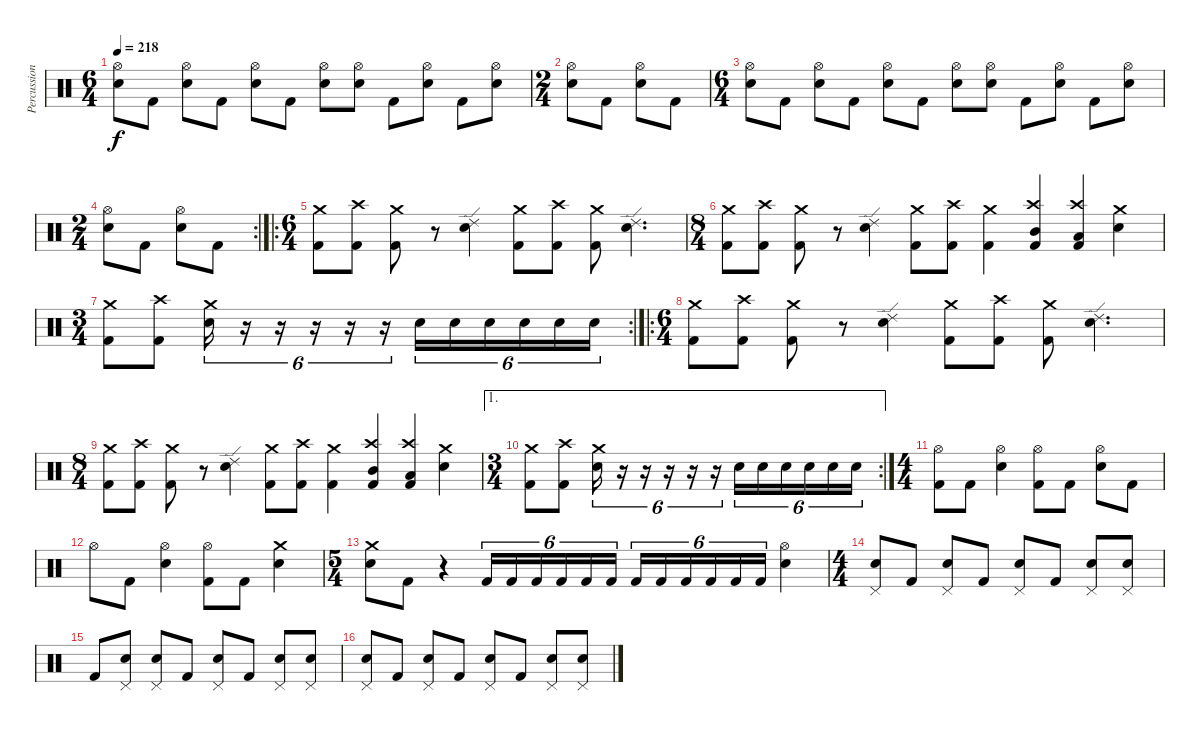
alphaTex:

\track ("Percussions" "Percussion") {instrument percussion}
\staff {score}
\articulation defaults
\ts (6 4)
\tempo 218
\clef neutral
\ks c
("Hi-Hat (open)" "Electric Snare (hit)").8{dy f} "Kick (hit) 2".8 ("Hi-Hat (open)" "Electric Snare (hit)").8 "Kick (hit) 2".8 ("Hi-Hat (open)" "Electric Snare (hit)").8 "Kick (hit) 2".8 ("Hi-Hat (open)" "Electric Snare (hit)").8 ("Hi-Hat (open)" "Electric Snare (hit)").8 "Kick (hit) 2".8 ("Hi-Hat (open)" "Electric Snare (hit)").8 "Kick (hit) 2".8 ("Hi-Hat (open)" "Electric Snare (hit)").8 |
\ts (2 4)
("Hi-Hat (open)" "Electric Snare (hit)").8 "Kick (hit) 2".8 ("Hi-Hat (open)" "Electric Snare (hit)").8 "Kick (hit) 2".8 |
\ts (6 4)
("Hi-Hat (open)" "Electric Snare (hit)").8 "Kick (hit) 2".8 ("Hi-Hat (open)" "Electric Snare (hit)").8 "Kick (hit) 2".8 ("Hi-Hat (open)" "Electric Snare (hit)").8 "Kick (hit) 2".8 ("Hi-Hat (open)" "Electric Snare (hit)").8 ("Hi-Hat (open)" "Electric Snare (hit)").8 "Kick (hit) 2".8 ("Hi-Hat (open)" "Electric Snare (hit)").8 "Kick (hit) 2".8 ("Hi-Hat (open)" "Electric Snare (hit)").8 |
\rc 2
\ts (2 4)
("Hi-Hat (open)" "Electric Snare (hit)").8 "Kick (hit) 2".8 ("Hi-Hat (open)" "Electric Snare (hit)").8 "Kick (hit) 2".8 |
\ro
\ts (6 4)
("Crash medium (hit)" "Kick (hit) 2").8 ("Crash high (hit)" "Kick (hit) 2").8 ("Crash medium (hit)" "Kick (hit) 2").8 r.8 ("Ride (edge) 2" "Electric Snare (hit)").4 ("Crash medium (hit)" "Kick (hit) 2").8 ("Crash high (hit)" "Kick (hit) 2").8 ("Crash medium (hit)" "Kick (hit) 2").8 ("Ride (edge) 2" "Electric Snare (hit)").4{d} |
\ts (8 4)
("Crash medium (hit)" "Kick (hit) 2").8 ("Crash high (hit)" "Kick (hit) 2").8 ("Crash medium (hit)" "Kick (hit) 2").8 r.8 ("Ride (edge) 2" "Electric Snare (hit)").4 ("Crash medium (hit)" "Kick (hit) 2").8 ("Crash high (hit)" "Kick (hit) 2").8 ("Crash medium (hit)" "Kick (hit) 2").4 ("Crash high (hit)" "Mid Tom (hit)" "Kick (hit) 2").4 ("Crash high (hit)" "Low Tom (hit)" "Kick (hit) 2").4 ("Crash medium (hit)" "Electric Snare (hit)").4 |
\rc 2
\ts (3 4)
("Crash medium (hit)" "Kick (hit) 2").8 ("Crash high (hit)" "Kick (hit) 2").8 ("Crash medium (hit)" "Electric Snare (hit)").16{tu (6 4)} r.16{tu (6 4)} r.16{tu (6 4)} r.16{tu (6 4)} r.16{tu (6 4)} r.16{tu (6 4)} "Electric Snare (hit)".16{tu (6 4)} "Electric Snare (hit)".16{tu (6 4)} "Electric Snare (hit)".16{tu (6 4)} "Electric Snare (hit)".16{tu (6 4)} "Electric Snare (hit)".16{tu (6 4)} "Electric Snare (hit)".16{tu (6 4)} |
\ro
\ts (6 4)
("Crash medium (hit)" "Kick (hit) 2").8 ("Crash high (hit)" "Kick (hit) 2").8 ("Crash medium (hit)" "Kick (hit) 2").8 r.8 ("Ride (edge) 2" "Electric Snare (hit)").4 ("Crash medium (hit)" "Kick (hit) 2").8 ("Crash high (hit)" "Kick (hit) 2").8 ("Crash medium (hit)" "Kick (hit) 2").8 ("Ride (edge) 2" "Electric Snare (hit)").4{d} |
\ts (8 4)
("Crash medium (hit)" "Kick (hit) 2").8 ("Crash high (hit)" "Kick (hit) 2").8 ("Crash medium (hit)" "Kick (hit) 2").8 r.8 ("Ride (edge) 2" "Electric Snare (hit)").4 ("Crash medium (hit)" "Kick (hit) 2").8 ("Crash high (hit)" "Kick (hit) 2").8 ("Crash medium (hit)" "Kick (hit) 2").4 ("Crash high (hit)" "Mid Tom (hit)" "Kick (hit) 2").4 ("Crash high (hit)" "Low Tom (hit)" "Kick (hit) 2").4 ("Crash medium (hit)" "Electric Snare (hit)").4 |
\ae 1
\rc 2
\ts (3 4)
("Crash medium (hit)" "Kick (hit) 2").8 ("Crash high (hit)" "Kick (hit) 2").8 ("Crash medium (hit)" "Electric Snare (hit)").16{tu (6 4)} r.16{tu (6 4)} r.16{tu (6 4)} r.16{tu (6 4)} r.16{tu (6 4)} r.16{tu (6 4)} "Electric Snare (hit)".16{tu (6 4)} "Electric Snare (hit)".16{tu (6 4)} "Electric Snare (hit)".16{tu (6 4)} "Electric Snare (hit)".16{tu (6 4)} "Electric Snare (hit)".16{tu (6 4)} "Electric Snare (hit)".16{tu (6 4)} |
\ts (4 4)
("Hi-Hat (open)" "Kick (hit) 2").8 "Kick (hit) 2".8 ("Hi-Hat (open)" "Electric Snare (hit)").4 ("Hi-Hat (open)" "Kick (hit) 2").8 "Kick (hit) 2".8 ("Hi-Hat (open)" "Electric Snare (hit)").8 "Kick (hit) 2".8 |
"Hi-Hat (open)".8 "Kick (hit) 2".8 ("Hi-Hat (open)" "Electric Snare (hit)").4 ("Hi-Hat (open)" "Kick (hit) 2").8 "Kick (hit) 2".8 ("Crash medium (hit)" "Electric Snare (hit)").4 |
\ts (5 4)
("Crash medium (hit)" "Electric Snare (hit)").8 "Kick (hit) 2".8 r.4 "Kick (hit) 2".16{tu (6 4)} "Kick (hit) 2".16{tu (6 4)} "Kick (hit) 2".16{tu (6 4)} "Kick (hit) 2".16{tu (6 4)} "Kick (hit) 2".16{tu (6 4)} "Kick (hit) 2".16{tu (6 4)} "Kick (hit) 2".16{tu (6 4)} "Kick (hit) 2".16{tu (6 4)} "Kick (hit) 2".16{tu (6 4)} "Kick (hit) 2".16{tu (6 4)} "Kick (hit) 2".16{tu (6 4)} "Kick (hit) 2".16{tu (6 4)} ("Hi-Hat (open)" "Electric Snare (hit)").4 |
\ts (4 4)
("Pedal Hi-Hat (hit)" "Electric Snare (hit)").8 "Kick (hit) 2".8 ("Pedal Hi-Hat (hit)" "Electric Snare (hit)").8 "Kick (hit) 2".8 ("Pedal Hi-Hat (hit)" "Electric Snare (hit)").8 "Kick (hit) 2".8 ("Pedal Hi-Hat (hit)" "Electric Snare (hit)").8 ("Pedal Hi-Hat (hit)" "Electric Snare (hit)").8 |
"Kick (hit) 2".8 ("Pedal Hi-Hat (hit)" "Electric Snare (hit)").8 ("Pedal Hi-Hat (hit)" "Electric Snare (hit)").8 "Kick (hit) 2".8 ("Pedal Hi-Hat (hit)" "Electric Snare (hit)").8 "Kick (hit) 2".8 ("Pedal Hi-Hat (hit)" "Electric Snare (hit)").8 ("Pedal Hi-Hat (hit)" "Electric Snare (hit)").8 |
("Pedal Hi-Hat (hit)" "Electric Snare (hit)").8 "Kick (hit) 2".8 ("Pedal Hi-Hat (hit)" "Electric Snare (hit)").8 "Kick (hit) 2".8 ("Pedal Hi-Hat (hit)" "Electric Snare (hit)").8 "Kick (hit) 2".8 ("Pedal Hi-Hat (hit)" "Electric Snare (hit)").8 ("Pedal Hi-Hat (hit)" "Electric Snare (hit)").8
